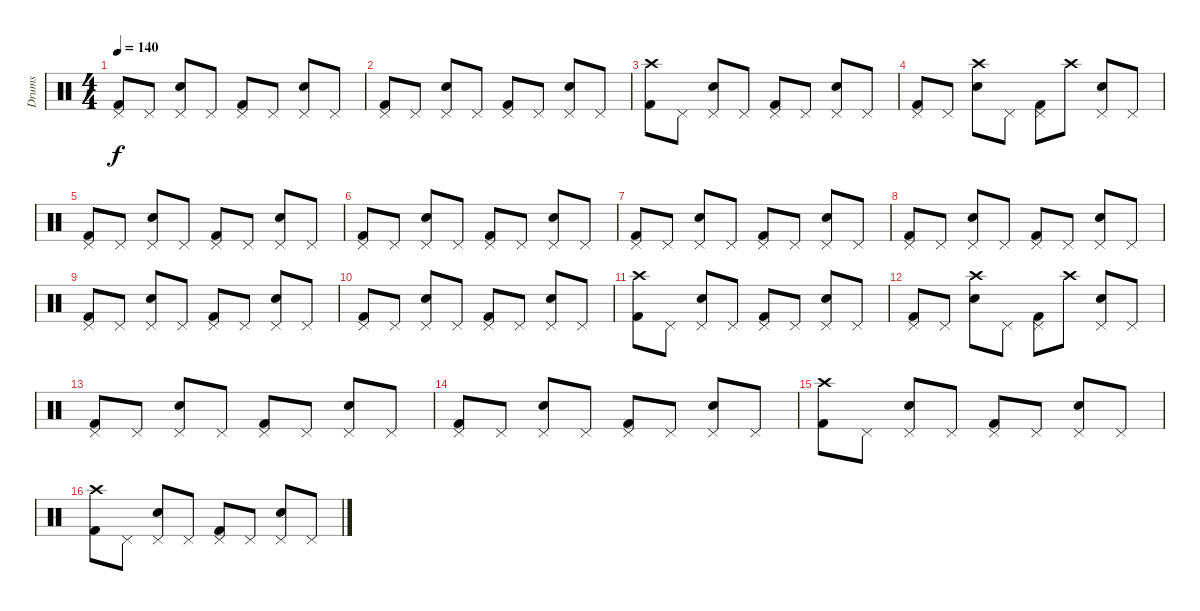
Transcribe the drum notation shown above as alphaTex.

\track ("Drums" "Drums") {instrument percussion}
\staff {score}
\articulation defaults
\ts (4 4)
\tempo 140
\clef neutral
\ks c
("Pedal Hi-Hat (hit)" "Kick (hit) 2").8{dy f} "Pedal Hi-Hat (hit)".8 ("Pedal Hi-Hat (hit)" "Snare (hit) 2").8 "Pedal Hi-Hat (hit)".8 ("Pedal Hi-Hat (hit)" "Kick (hit) 2").8 "Pedal Hi-Hat (hit)".8 ("Pedal Hi-Hat (hit)" "Snare (hit) 2").8 "Pedal Hi-Hat (hit)".8 |
("Pedal Hi-Hat (hit)" "Kick (hit) 2").8 "Pedal Hi-Hat (hit)".8 ("Pedal Hi-Hat (hit)" "Snare (hit) 2").8 "Pedal Hi-Hat (hit)".8 ("Pedal Hi-Hat (hit)" "Kick (hit) 2").8 "Pedal Hi-Hat (hit)".8 ("Pedal Hi-Hat (hit)" "Snare (hit) 2").8 "Pedal Hi-Hat (hit)".8 |
("Crash high (hit)" "Kick (hit) 2").8 "Pedal Hi-Hat (hit)".8 ("Pedal Hi-Hat (hit)" "Snare (hit) 2").8 "Pedal Hi-Hat (hit)".8 ("Pedal Hi-Hat (hit)" "Kick (hit) 2").8 "Pedal Hi-Hat (hit)".8 ("Pedal Hi-Hat (hit)" "Snare (hit) 2").8 "Pedal Hi-Hat (hit)".8 |
("Pedal Hi-Hat (hit)" "Kick (hit) 2").8 "Pedal Hi-Hat (hit)".8 ("Crash high (hit)" "Snare (hit) 2").8 "Pedal Hi-Hat (hit)".8 ("Pedal Hi-Hat (hit)" "Kick (hit) 2").8 "Crash high (hit)".8 ("Pedal Hi-Hat (hit)" "Snare (hit) 2").8 "Pedal Hi-Hat (hit)".8 |
("Pedal Hi-Hat (hit)" "Kick (hit) 2").8 "Pedal Hi-Hat (hit)".8 ("Pedal Hi-Hat (hit)" "Snare (hit) 2").8 "Pedal Hi-Hat (hit)".8 ("Pedal Hi-Hat (hit)" "Kick (hit) 2").8 "Pedal Hi-Hat (hit)".8 ("Pedal Hi-Hat (hit)" "Snare (hit) 2").8 "Pedal Hi-Hat (hit)".8 |
("Pedal Hi-Hat (hit)" "Kick (hit) 2").8 "Pedal Hi-Hat (hit)".8 ("Pedal Hi-Hat (hit)" "Snare (hit) 2").8 "Pedal Hi-Hat (hit)".8 ("Pedal Hi-Hat (hit)" "Kick (hit) 2").8 "Pedal Hi-Hat (hit)".8 ("Pedal Hi-Hat (hit)" "Snare (hit) 2").8 "Pedal Hi-Hat (hit)".8 |
("Pedal Hi-Hat (hit)" "Kick (hit) 2").8 "Pedal Hi-Hat (hit)".8 ("Pedal Hi-Hat (hit)" "Snare (hit) 2").8 "Pedal Hi-Hat (hit)".8 ("Pedal Hi-Hat (hit)" "Kick (hit) 2").8 "Pedal Hi-Hat (hit)".8 ("Pedal Hi-Hat (hit)" "Snare (hit) 2").8 "Pedal Hi-Hat (hit)".8 |
("Pedal Hi-Hat (hit)" "Kick (hit) 2").8 "Pedal Hi-Hat (hit)".8 ("Pedal Hi-Hat (hit)" "Snare (hit) 2").8 "Pedal Hi-Hat (hit)".8 ("Pedal Hi-Hat (hit)" "Kick (hit) 2").8 "Pedal Hi-Hat (hit)".8 ("Pedal Hi-Hat (hit)" "Snare (hit) 2").8 "Pedal Hi-Hat (hit)".8 |
("Pedal Hi-Hat (hit)" "Kick (hit) 2").8 "Pedal Hi-Hat (hit)".8 ("Pedal Hi-Hat (hit)" "Snare (hit) 2").8 "Pedal Hi-Hat (hit)".8 ("Pedal Hi-Hat (hit)" "Kick (hit) 2").8 "Pedal Hi-Hat (hit)".8 ("Pedal Hi-Hat (hit)" "Snare (hit) 2").8 "Pedal Hi-Hat (hit)".8 |
("Pedal Hi-Hat (hit)" "Kick (hit) 2").8 "Pedal Hi-Hat (hit)".8 ("Pedal Hi-Hat (hit)" "Snare (hit) 2").8 "Pedal Hi-Hat (hit)".8 ("Pedal Hi-Hat (hit)" "Kick (hit) 2").8 "Pedal Hi-Hat (hit)".8 ("Pedal Hi-Hat (hit)" "Snare (hit) 2").8 "Pedal Hi-Hat (hit)".8 |
("Crash high (hit)" "Kick (hit) 2").8 "Pedal Hi-Hat (hit)".8 ("Pedal Hi-Hat (hit)" "Snare (hit) 2").8 "Pedal Hi-Hat (hit)".8 ("Pedal Hi-Hat (hit)" "Kick (hit) 2").8 "Pedal Hi-Hat (hit)".8 ("Pedal Hi-Hat (hit)" "Snare (hit) 2").8 "Pedal Hi-Hat (hit)".8 |
("Pedal Hi-Hat (hit)" "Kick (hit) 2").8 "Pedal Hi-Hat (hit)".8 ("Crash high (hit)" "Snare (hit) 2").8 "Pedal Hi-Hat (hit)".8 ("Pedal Hi-Hat (hit)" "Kick (hit) 2").8 "Crash high (hit)".8 ("Pedal Hi-Hat (hit)" "Snare (hit) 2").8 "Pedal Hi-Hat (hit)".8 |
("Pedal Hi-Hat (hit)" "Kick (hit) 2").8 "Pedal Hi-Hat (hit)".8 ("Pedal Hi-Hat (hit)" "Snare (hit) 2").8 "Pedal Hi-Hat (hit)".8 ("Pedal Hi-Hat (hit)" "Kick (hit) 2").8 "Pedal Hi-Hat (hit)".8 ("Pedal Hi-Hat (hit)" "Snare (hit) 2").8 "Pedal Hi-Hat (hit)".8 |
("Pedal Hi-Hat (hit)" "Kick (hit) 2").8 "Pedal Hi-Hat (hit)".8 ("Pedal Hi-Hat (hit)" "Snare (hit) 2").8 "Pedal Hi-Hat (hit)".8 ("Pedal Hi-Hat (hit)" "Kick (hit) 2").8 "Pedal Hi-Hat (hit)".8 ("Pedal Hi-Hat (hit)" "Snare (hit) 2").8 "Pedal Hi-Hat (hit)".8 |
("Crash high (hit)" "Kick (hit) 2").8 "Pedal Hi-Hat (hit)".8 ("Pedal Hi-Hat (hit)" "Snare (hit) 2").8 "Pedal Hi-Hat (hit)".8 ("Pedal Hi-Hat (hit)" "Kick (hit) 2").8 "Pedal Hi-Hat (hit)".8 ("Pedal Hi-Hat (hit)" "Snare (hit) 2").8 "Pedal Hi-Hat (hit)".8 |
("Crash high (hit)" "Kick (hit) 2").8 "Pedal Hi-Hat (hit)".8 ("Pedal Hi-Hat (hit)" "Snare (hit) 2").8 "Pedal Hi-Hat (hit)".8 ("Pedal Hi-Hat (hit)" "Kick (hit) 2").8 "Pedal Hi-Hat (hit)".8 ("Pedal Hi-Hat (hit)" "Snare (hit) 2").8 "Pedal Hi-Hat (hit)".8
